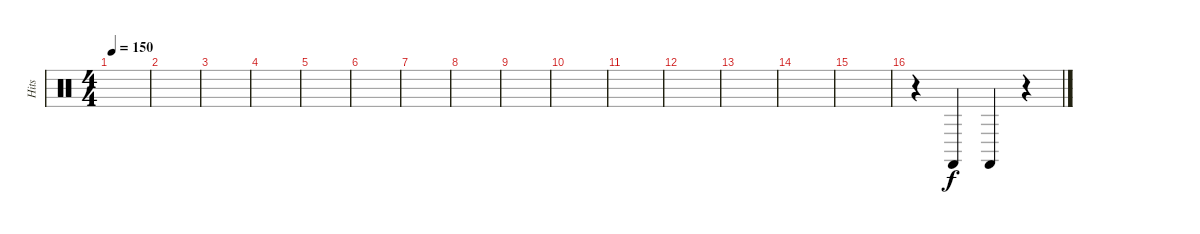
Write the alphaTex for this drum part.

\track ("Hits" "Hits") {instrument percussion}
\staff {score}
\articulation defaults
\ts (4 4)
\tempo 150
\clef neutral
\ks c
|
|
|
|
|
|
|
|
|
|
|
|
|
|
|
r.4 "Castanets (hit)".4 "Castanets (hit)".4 r.4
